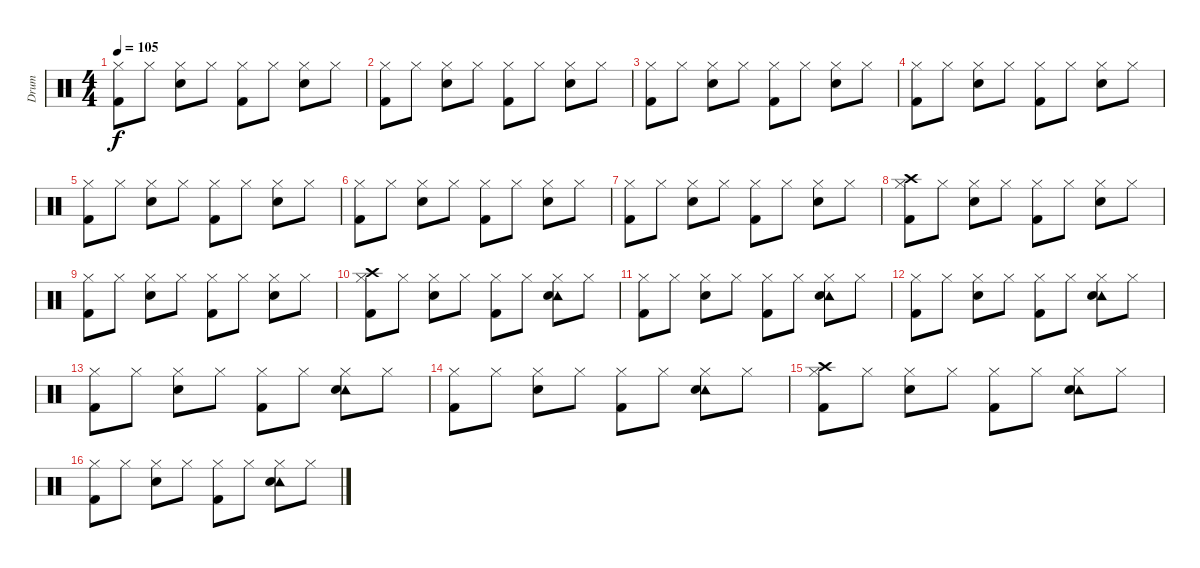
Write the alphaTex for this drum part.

\track ("Drum" "Drum") {instrument percussion}
\staff {score}
\articulation defaults
\ts (4 4)
\tempo 105
\clef neutral
\ks c
("Hi-Hat (closed)" "Kick (hit) 2").8{dy f} "Hi-Hat (closed)".8 ("Electric Snare (hit)" "Hi-Hat (closed)").8 "Hi-Hat (closed)".8 ("Hi-Hat (closed)" "Kick (hit) 2").8 "Hi-Hat (closed)".8 ("Electric Snare (hit)" "Hi-Hat (closed)").8 "Hi-Hat (closed)".8 |
("Hi-Hat (closed)" "Kick (hit) 2").8 "Hi-Hat (closed)".8 ("Electric Snare (hit)" "Hi-Hat (closed)").8 "Hi-Hat (closed)".8 ("Hi-Hat (closed)" "Kick (hit) 2").8 "Hi-Hat (closed)".8 ("Electric Snare (hit)" "Hi-Hat (closed)").8 "Hi-Hat (closed)".8 |
("Hi-Hat (closed)" "Kick (hit) 2").8 "Hi-Hat (closed)".8 ("Electric Snare (hit)" "Hi-Hat (closed)").8 "Hi-Hat (closed)".8 ("Hi-Hat (closed)" "Kick (hit) 2").8 "Hi-Hat (closed)".8 ("Electric Snare (hit)" "Hi-Hat (closed)").8 "Hi-Hat (closed)".8 |
("Hi-Hat (closed)" "Kick (hit) 2").8 "Hi-Hat (closed)".8 ("Electric Snare (hit)" "Hi-Hat (closed)").8 "Hi-Hat (closed)".8 ("Hi-Hat (closed)" "Kick (hit) 2").8 "Hi-Hat (closed)".8 ("Electric Snare (hit)" "Hi-Hat (closed)").8 "Hi-Hat (closed)".8 |
("Hi-Hat (closed)" "Kick (hit) 2").8 "Hi-Hat (closed)".8 ("Electric Snare (hit)" "Hi-Hat (closed)").8 "Hi-Hat (closed)".8 ("Hi-Hat (closed)" "Kick (hit) 2").8 "Hi-Hat (closed)".8 ("Electric Snare (hit)" "Hi-Hat (closed)").8 "Hi-Hat (closed)".8 |
("Hi-Hat (closed)" "Kick (hit) 2").8 "Hi-Hat (closed)".8 ("Electric Snare (hit)" "Hi-Hat (closed)").8 "Hi-Hat (closed)".8 ("Hi-Hat (closed)" "Kick (hit) 2").8 "Hi-Hat (closed)".8 ("Electric Snare (hit)" "Hi-Hat (closed)").8 "Hi-Hat (closed)".8 |
("Hi-Hat (closed)" "Kick (hit) 2").8 "Hi-Hat (closed)".8 ("Electric Snare (hit)" "Hi-Hat (closed)").8 "Hi-Hat (closed)".8 ("Hi-Hat (closed)" "Kick (hit) 2").8 "Hi-Hat (closed)".8 ("Electric Snare (hit)" "Hi-Hat (closed)").8 "Hi-Hat (closed)".8 |
("Crash high (hit)" "Hi-Hat (closed)" "Kick (hit) 2").8 "Hi-Hat (closed)".8 ("Electric Snare (hit)" "Hi-Hat (closed)").8 "Hi-Hat (closed)".8 ("Hi-Hat (closed)" "Kick (hit) 2").8 "Hi-Hat (closed)".8 ("Electric Snare (hit)" "Hi-Hat (closed)").8 "Hi-Hat (closed)".8 |
("Hi-Hat (closed)" "Kick (hit) 2").8 "Hi-Hat (closed)".8 ("Electric Snare (hit)" "Hi-Hat (closed)").8 "Hi-Hat (closed)".8 ("Hi-Hat (closed)" "Kick (hit) 2").8 "Hi-Hat (closed)".8 ("Electric Snare (hit)" "Hi-Hat (closed)").8 "Hi-Hat (closed)".8 |
("Crash high (hit)" "Hi-Hat (closed)" "Kick (hit) 2").8 "Hi-Hat (closed)".8 ("Electric Snare (hit)" "Hi-Hat (closed)").8 "Hi-Hat (closed)".8 ("Hi-Hat (closed)" "Kick (hit) 2").8 "Hi-Hat (closed)".8 ("Tambourine (hit)" "Electric Snare (hit)" "Hi-Hat (closed)").8 "Hi-Hat (closed)".8 |
("Hi-Hat (closed)" "Kick (hit) 2").8 "Hi-Hat (closed)".8 ("Electric Snare (hit)" "Hi-Hat (closed)").8 "Hi-Hat (closed)".8 ("Hi-Hat (closed)" "Kick (hit) 2").8 "Hi-Hat (closed)".8 ("Tambourine (hit)" "Electric Snare (hit)" "Hi-Hat (closed)").8 "Hi-Hat (closed)".8 |
("Hi-Hat (closed)" "Kick (hit) 2").8 "Hi-Hat (closed)".8 ("Electric Snare (hit)" "Hi-Hat (closed)").8 "Hi-Hat (closed)".8 ("Hi-Hat (closed)" "Kick (hit) 2").8 "Hi-Hat (closed)".8 ("Tambourine (hit)" "Electric Snare (hit)" "Hi-Hat (closed)").8 "Hi-Hat (closed)".8 |
("Hi-Hat (closed)" "Kick (hit) 2").8 "Hi-Hat (closed)".8 ("Electric Snare (hit)" "Hi-Hat (closed)").8 "Hi-Hat (closed)".8 ("Hi-Hat (closed)" "Kick (hit) 2").8 "Hi-Hat (closed)".8 ("Tambourine (hit)" "Electric Snare (hit)" "Hi-Hat (closed)").8 "Hi-Hat (closed)".8 |
("Hi-Hat (closed)" "Kick (hit) 2").8 "Hi-Hat (closed)".8 ("Electric Snare (hit)" "Hi-Hat (closed)").8 "Hi-Hat (closed)".8 ("Hi-Hat (closed)" "Kick (hit) 2").8 "Hi-Hat (closed)".8 ("Tambourine (hit)" "Electric Snare (hit)" "Hi-Hat (closed)").8 "Hi-Hat (closed)".8 |
("Crash high (hit)" "Hi-Hat (closed)" "Kick (hit) 2").8 "Hi-Hat (closed)".8 ("Electric Snare (hit)" "Hi-Hat (closed)").8 "Hi-Hat (closed)".8 ("Hi-Hat (closed)" "Kick (hit) 2").8 "Hi-Hat (closed)".8 ("Tambourine (hit)" "Electric Snare (hit)" "Hi-Hat (closed)").8 "Hi-Hat (closed)".8 |
("Hi-Hat (closed)" "Kick (hit) 2").8 "Hi-Hat (closed)".8 ("Electric Snare (hit)" "Hi-Hat (closed)").8 "Hi-Hat (closed)".8 ("Hi-Hat (closed)" "Kick (hit) 2").8 "Hi-Hat (closed)".8 ("Tambourine (hit)" "Electric Snare (hit)" "Hi-Hat (closed)").8 "Hi-Hat (closed)".8
